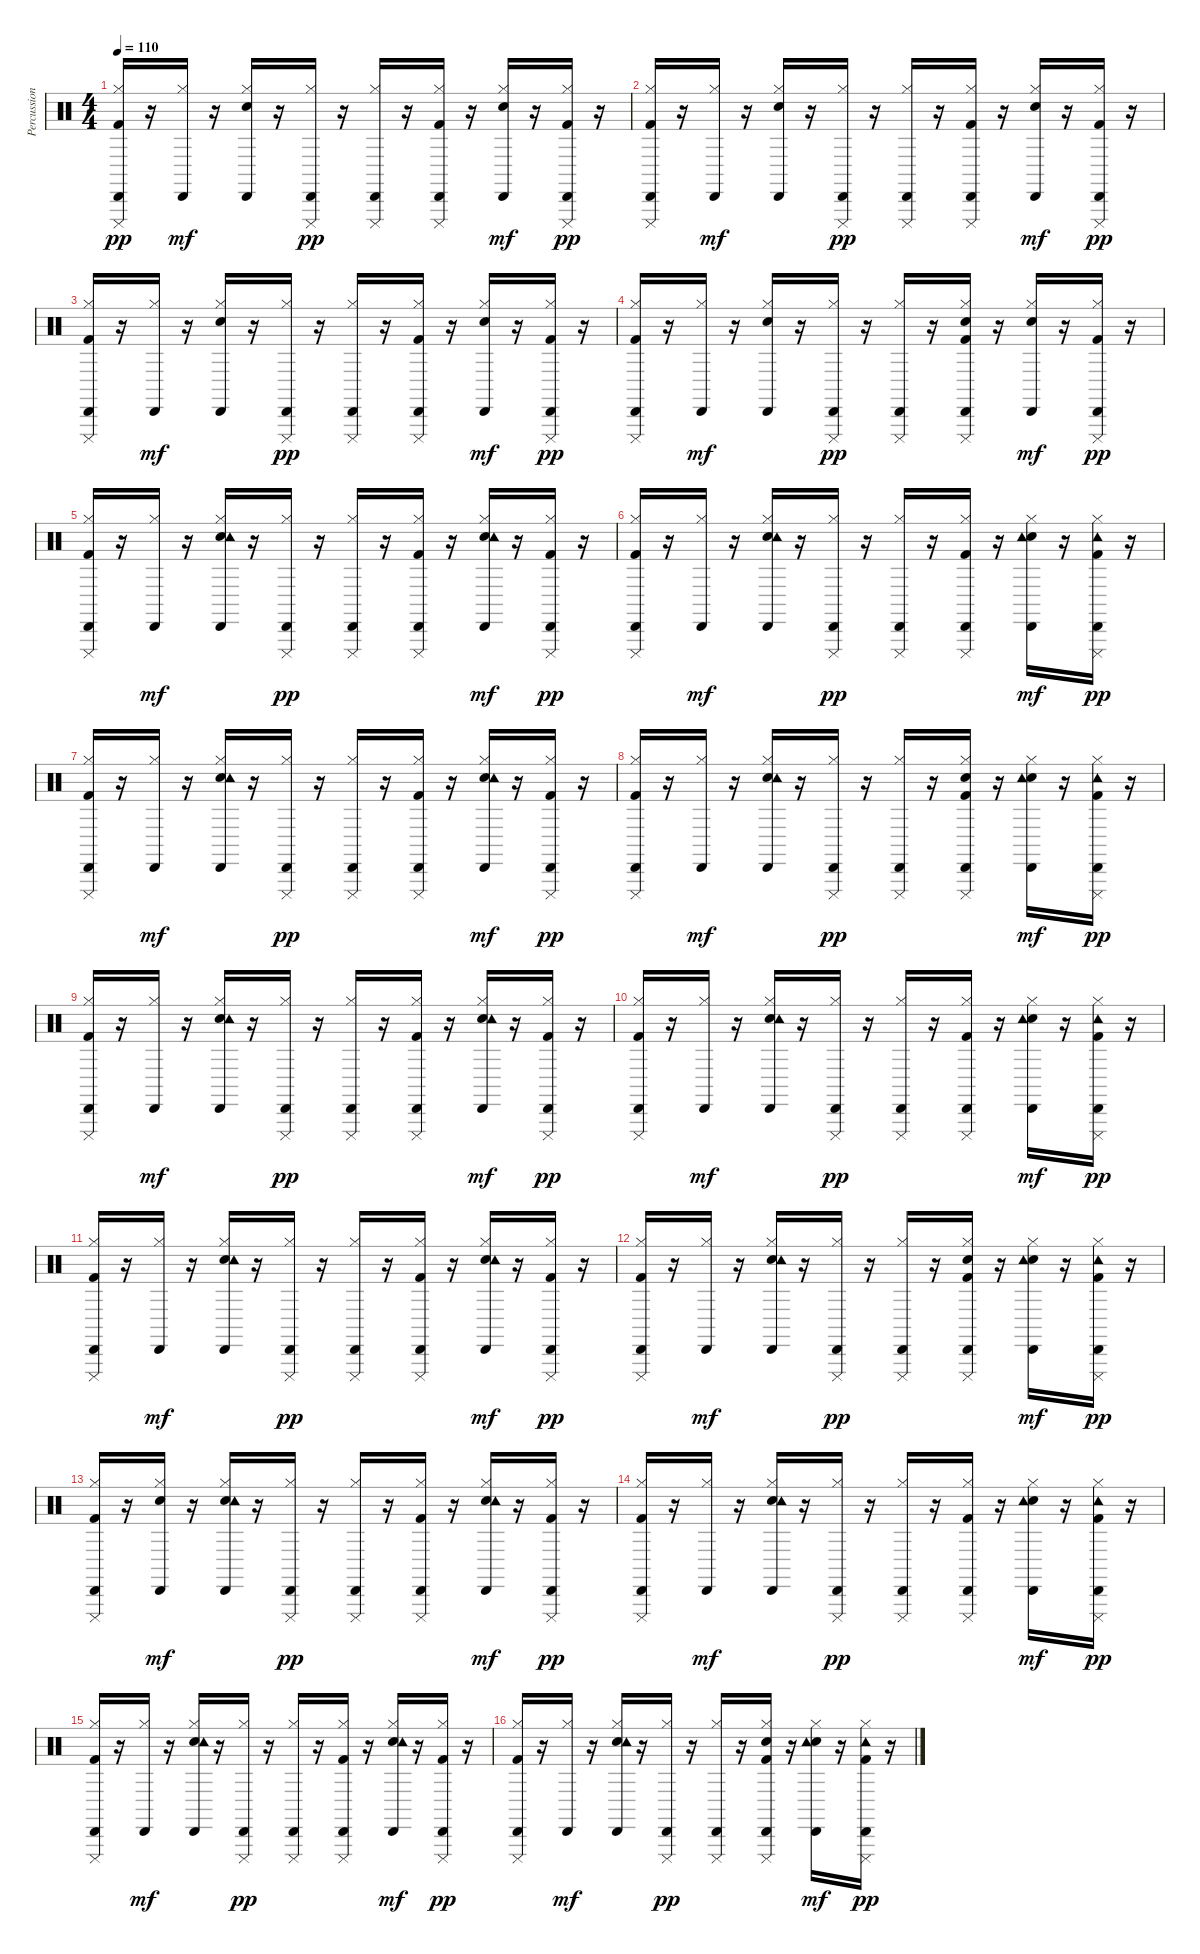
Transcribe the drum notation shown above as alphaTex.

\track ("Percussion" "Percussion") {instrument percussion}
\staff {score}
\articulation defaults
\ts (4 4)
\tempo 110
\clef neutral
\ks c
("Kick (hit) 2" "Hi-Hat (closed)" "Cabasa (hit)" "Cuica (mute)").16{dy pp} r.16 ("Hi-Hat (closed)" "Cabasa (hit)").16{dy mf} r.16 ("Electric Snare (hit)" "Hi-Hat (closed)" "Cabasa (hit)").16 r.16 ("Hi-Hat (closed)" "Cabasa (hit)" "Cuica (mute)").16{dy pp} r.16 ("Hi-Hat (closed)" "Cabasa (hit)" "Cuica (mute)").16 r.16 ("Kick (hit) 2" "Hi-Hat (closed)" "Cabasa (hit)" "Cuica (mute)").16 r.16 ("Electric Snare (hit)" "Hi-Hat (closed)" "Cabasa (hit)").16{dy mf} r.16 ("Kick (hit) 2" "Hi-Hat (closed)" "Cabasa (hit)" "Cuica (mute)").16{dy pp} r.16 |
("Kick (hit) 2" "Hi-Hat (closed)" "Cabasa (hit)" "Cuica (mute)").16 r.16 ("Hi-Hat (closed)" "Cabasa (hit)").16{dy mf} r.16 ("Electric Snare (hit)" "Hi-Hat (closed)" "Cabasa (hit)").16 r.16 ("Hi-Hat (closed)" "Cabasa (hit)" "Cuica (mute)").16{dy pp} r.16 ("Hi-Hat (closed)" "Cabasa (hit)" "Cuica (mute)").16 r.16 ("Kick (hit) 2" "Hi-Hat (closed)" "Cabasa (hit)" "Cuica (mute)").16 r.16 ("Electric Snare (hit)" "Hi-Hat (closed)" "Cabasa (hit)").16{dy mf} r.16 ("Kick (hit) 2" "Hi-Hat (closed)" "Cabasa (hit)" "Cuica (mute)").16{dy pp} r.16 |
("Kick (hit) 2" "Hi-Hat (closed)" "Cabasa (hit)" "Cuica (mute)").16 r.16 ("Hi-Hat (closed)" "Cabasa (hit)").16{dy mf} r.16 ("Electric Snare (hit)" "Hi-Hat (closed)" "Cabasa (hit)").16 r.16 ("Hi-Hat (closed)" "Cabasa (hit)" "Cuica (mute)").16{dy pp} r.16 ("Hi-Hat (closed)" "Cabasa (hit)" "Cuica (mute)").16 r.16 ("Kick (hit) 2" "Hi-Hat (closed)" "Cabasa (hit)" "Cuica (mute)").16 r.16 ("Electric Snare (hit)" "Hi-Hat (closed)" "Cabasa (hit)").16{dy mf} r.16 ("Kick (hit) 2" "Hi-Hat (closed)" "Cabasa (hit)" "Cuica (mute)").16{dy pp} r.16 |
("Kick (hit) 2" "Hi-Hat (closed)" "Cabasa (hit)" "Cuica (mute)").16 r.16 ("Hi-Hat (closed)" "Cabasa (hit)").16{dy mf} r.16 ("Electric Snare (hit)" "Hi-Hat (closed)" "Cabasa (hit)").16 r.16 ("Hi-Hat (closed)" "Cabasa (hit)" "Cuica (mute)").16{dy pp} r.16 ("Hi-Hat (closed)" "Cabasa (hit)" "Cuica (mute)").16 r.16 ("Kick (hit) 2" "Electric Snare (hit)" "Hi-Hat (closed)" "Cabasa (hit)" "Cuica (mute)").16 r.16 ("Electric Snare (hit)" "Hi-Hat (closed)" "Cabasa (hit)").16{dy mf} r.16 ("Kick (hit) 2" "Hi-Hat (closed)" "Cabasa (hit)" "Cuica (mute)").16{dy pp} r.16 |
("Kick (hit) 2" "Hi-Hat (closed)" "Cabasa (hit)" "Cuica (mute)").16 r.16 ("Hi-Hat (closed)" "Cabasa (hit)").16{dy mf} r.16 ("Electric Snare (hit)" "Hi-Hat (closed)" "Tambourine (hit)" "Cabasa (hit)").16 r.16 ("Hi-Hat (closed)" "Cabasa (hit)" "Cuica (mute)").16{dy pp} r.16 ("Hi-Hat (closed)" "Cabasa (hit)" "Cuica (mute)").16 r.16 ("Kick (hit) 2" "Hi-Hat (closed)" "Cabasa (hit)" "Cuica (mute)").16 r.16 ("Electric Snare (hit)" "Hi-Hat (closed)" "Tambourine (hit)" "Cabasa (hit)").16{dy mf} r.16 ("Kick (hit) 2" "Hi-Hat (closed)" "Cabasa (hit)" "Cuica (mute)").16{dy pp} r.16 |
("Kick (hit) 2" "Hi-Hat (closed)" "Cabasa (hit)" "Cuica (mute)").16 r.16 ("Hi-Hat (closed)" "Cabasa (hit)").16{dy mf} r.16 ("Electric Snare (hit)" "Hi-Hat (closed)" "Tambourine (hit)" "Cabasa (hit)").16 r.16 ("Hi-Hat (closed)" "Cabasa (hit)" "Cuica (mute)").16{dy pp} r.16 ("Hi-Hat (closed)" "Cabasa (hit)" "Cuica (mute)").16 r.16 ("Kick (hit) 2" "Hi-Hat (closed)" "Cabasa (hit)" "Cuica (mute)").16 r.16 ("Electric Snare (hit)" "Hi-Hat (closed)" "Tambourine (hit)" "Cabasa (hit)").16{dy mf} r.16 ("Kick (hit) 2" "Hi-Hat (closed)" "Tambourine (hit)" "Cabasa (hit)" "Cuica (mute)").16{dy pp} r.16 |
("Kick (hit) 2" "Hi-Hat (closed)" "Cabasa (hit)" "Cuica (mute)").16 r.16 ("Hi-Hat (closed)" "Cabasa (hit)").16{dy mf} r.16 ("Electric Snare (hit)" "Hi-Hat (closed)" "Tambourine (hit)" "Cabasa (hit)").16 r.16 ("Hi-Hat (closed)" "Cabasa (hit)" "Cuica (mute)").16{dy pp} r.16 ("Hi-Hat (closed)" "Cabasa (hit)" "Cuica (mute)").16 r.16 ("Kick (hit) 2" "Hi-Hat (closed)" "Cabasa (hit)" "Cuica (mute)").16 r.16 ("Electric Snare (hit)" "Hi-Hat (closed)" "Tambourine (hit)" "Cabasa (hit)").16{dy mf} r.16 ("Kick (hit) 2" "Hi-Hat (closed)" "Cabasa (hit)" "Cuica (mute)").16{dy pp} r.16 |
("Kick (hit) 2" "Hi-Hat (closed)" "Cabasa (hit)" "Cuica (mute)").16 r.16 ("Hi-Hat (closed)" "Cabasa (hit)").16{dy mf} r.16 ("Electric Snare (hit)" "Hi-Hat (closed)" "Tambourine (hit)" "Cabasa (hit)").16 r.16 ("Hi-Hat (closed)" "Cabasa (hit)" "Cuica (mute)").16{dy pp} r.16 ("Hi-Hat (closed)" "Cabasa (hit)" "Cuica (mute)").16 r.16 ("Kick (hit) 2" "Electric Snare (hit)" "Hi-Hat (closed)" "Cabasa (hit)" "Cuica (mute)").16 r.16 ("Electric Snare (hit)" "Hi-Hat (closed)" "Tambourine (hit)" "Cabasa (hit)").16{dy mf} r.16 ("Kick (hit) 2" "Hi-Hat (closed)" "Tambourine (hit)" "Cabasa (hit)" "Cuica (mute)").16{dy pp} r.16 |
("Kick (hit) 2" "Hi-Hat (closed)" "Cabasa (hit)" "Cuica (mute)").16 r.16 ("Hi-Hat (closed)" "Cabasa (hit)").16{dy mf} r.16 ("Electric Snare (hit)" "Hi-Hat (closed)" "Tambourine (hit)" "Cabasa (hit)").16 r.16 ("Hi-Hat (closed)" "Cabasa (hit)" "Cuica (mute)").16{dy pp} r.16 ("Hi-Hat (closed)" "Cabasa (hit)" "Cuica (mute)").16 r.16 ("Kick (hit) 2" "Hi-Hat (closed)" "Cabasa (hit)" "Cuica (mute)").16 r.16 ("Electric Snare (hit)" "Hi-Hat (closed)" "Tambourine (hit)" "Cabasa (hit)").16{dy mf} r.16 ("Kick (hit) 2" "Hi-Hat (closed)" "Cabasa (hit)" "Cuica (mute)").16{dy pp} r.16 |
("Kick (hit) 2" "Hi-Hat (closed)" "Cabasa (hit)" "Cuica (mute)").16 r.16 ("Hi-Hat (closed)" "Cabasa (hit)").16{dy mf} r.16 ("Electric Snare (hit)" "Hi-Hat (closed)" "Tambourine (hit)" "Cabasa (hit)").16 r.16 ("Hi-Hat (closed)" "Cabasa (hit)" "Cuica (mute)").16{dy pp} r.16 ("Hi-Hat (closed)" "Cabasa (hit)" "Cuica (mute)").16 r.16 ("Kick (hit) 2" "Hi-Hat (closed)" "Cabasa (hit)" "Cuica (mute)").16 r.16 ("Electric Snare (hit)" "Hi-Hat (closed)" "Tambourine (hit)" "Cabasa (hit)").16{dy mf} r.16 ("Kick (hit) 2" "Hi-Hat (closed)" "Tambourine (hit)" "Cabasa (hit)" "Cuica (mute)").16{dy pp} r.16 |
("Kick (hit) 2" "Hi-Hat (closed)" "Cabasa (hit)" "Cuica (mute)").16 r.16 ("Hi-Hat (closed)" "Cabasa (hit)").16{dy mf} r.16 ("Electric Snare (hit)" "Hi-Hat (closed)" "Tambourine (hit)" "Cabasa (hit)").16 r.16 ("Hi-Hat (closed)" "Cabasa (hit)" "Cuica (mute)").16{dy pp} r.16 ("Hi-Hat (closed)" "Cabasa (hit)" "Cuica (mute)").16 r.16 ("Kick (hit) 2" "Hi-Hat (closed)" "Cabasa (hit)" "Cuica (mute)").16 r.16 ("Electric Snare (hit)" "Hi-Hat (closed)" "Tambourine (hit)" "Cabasa (hit)").16{dy mf} r.16 ("Kick (hit) 2" "Hi-Hat (closed)" "Cabasa (hit)" "Cuica (mute)").16{dy pp} r.16 |
("Kick (hit) 2" "Hi-Hat (closed)" "Cabasa (hit)" "Cuica (mute)").16 r.16 ("Hi-Hat (closed)" "Cabasa (hit)").16{dy mf} r.16 ("Electric Snare (hit)" "Hi-Hat (closed)" "Tambourine (hit)" "Cabasa (hit)").16 r.16 ("Hi-Hat (closed)" "Cabasa (hit)" "Cuica (mute)").16{dy pp} r.16 ("Hi-Hat (closed)" "Cabasa (hit)" "Cuica (mute)").16 r.16 ("Kick (hit) 2" "Electric Snare (hit)" "Hi-Hat (closed)" "Cabasa (hit)" "Cuica (mute)").16 r.16 ("Electric Snare (hit)" "Hi-Hat (closed)" "Tambourine (hit)" "Cabasa (hit)").16{dy mf} r.16 ("Kick (hit) 2" "Hi-Hat (closed)" "Tambourine (hit)" "Cabasa (hit)" "Cuica (mute)").16{dy pp} r.16 |
("Kick (hit) 2" "Hi-Hat (closed)" "Cabasa (hit)" "Cuica (mute)").16 r.16 ("Electric Snare (hit)" "Hi-Hat (closed)" "Cabasa (hit)").16{dy mf} r.16 ("Electric Snare (hit)" "Hi-Hat (closed)" "Tambourine (hit)" "Cabasa (hit)").16 r.16 ("Hi-Hat (closed)" "Cabasa (hit)" "Cuica (mute)").16{dy pp} r.16 ("Hi-Hat (closed)" "Cabasa (hit)" "Cuica (mute)").16 r.16 ("Kick (hit) 2" "Hi-Hat (closed)" "Cabasa (hit)" "Cuica (mute)").16 r.16 ("Electric Snare (hit)" "Hi-Hat (closed)" "Tambourine (hit)" "Cabasa (hit)").16{dy mf} r.16 ("Kick (hit) 2" "Hi-Hat (closed)" "Cabasa (hit)" "Cuica (mute)").16{dy pp} r.16 |
("Kick (hit) 2" "Hi-Hat (closed)" "Cabasa (hit)" "Cuica (mute)").16 r.16 ("Hi-Hat (closed)" "Cabasa (hit)").16{dy mf} r.16 ("Electric Snare (hit)" "Hi-Hat (closed)" "Tambourine (hit)" "Cabasa (hit)").16 r.16 ("Hi-Hat (closed)" "Cabasa (hit)" "Cuica (mute)").16{dy pp} r.16 ("Hi-Hat (closed)" "Cabasa (hit)" "Cuica (mute)").16 r.16 ("Kick (hit) 2" "Hi-Hat (closed)" "Cabasa (hit)" "Cuica (mute)").16 r.16 ("Electric Snare (hit)" "Hi-Hat (closed)" "Tambourine (hit)" "Cabasa (hit)").16{dy mf} r.16 ("Kick (hit) 2" "Hi-Hat (closed)" "Tambourine (hit)" "Cabasa (hit)" "Cuica (mute)").16{dy pp} r.16 |
("Kick (hit) 2" "Hi-Hat (closed)" "Cabasa (hit)" "Cuica (mute)").16 r.16 ("Hi-Hat (closed)" "Cabasa (hit)").16{dy mf} r.16 ("Electric Snare (hit)" "Hi-Hat (closed)" "Tambourine (hit)" "Cabasa (hit)").16 r.16 ("Hi-Hat (closed)" "Cabasa (hit)" "Cuica (mute)").16{dy pp} r.16 ("Hi-Hat (closed)" "Cabasa (hit)" "Cuica (mute)").16 r.16 ("Kick (hit) 2" "Hi-Hat (closed)" "Cabasa (hit)" "Cuica (mute)").16 r.16 ("Electric Snare (hit)" "Hi-Hat (closed)" "Tambourine (hit)" "Cabasa (hit)").16{dy mf} r.16 ("Kick (hit) 2" "Hi-Hat (closed)" "Cabasa (hit)" "Cuica (mute)").16{dy pp} r.16 |
("Kick (hit) 2" "Hi-Hat (closed)" "Cabasa (hit)" "Cuica (mute)").16 r.16 ("Hi-Hat (closed)" "Cabasa (hit)").16{dy mf} r.16 ("Electric Snare (hit)" "Hi-Hat (closed)" "Tambourine (hit)" "Cabasa (hit)").16 r.16 ("Hi-Hat (closed)" "Cabasa (hit)" "Cuica (mute)").16{dy pp} r.16 ("Hi-Hat (closed)" "Cabasa (hit)" "Cuica (mute)").16 r.16 ("Kick (hit) 2" "Electric Snare (hit)" "Hi-Hat (closed)" "Cabasa (hit)" "Cuica (mute)").16 r.16 ("Electric Snare (hit)" "Hi-Hat (closed)" "Tambourine (hit)" "Cabasa (hit)").16{dy mf} r.16 ("Kick (hit) 2" "Hi-Hat (closed)" "Tambourine (hit)" "Cabasa (hit)" "Cuica (mute)").16{dy pp} r.16
